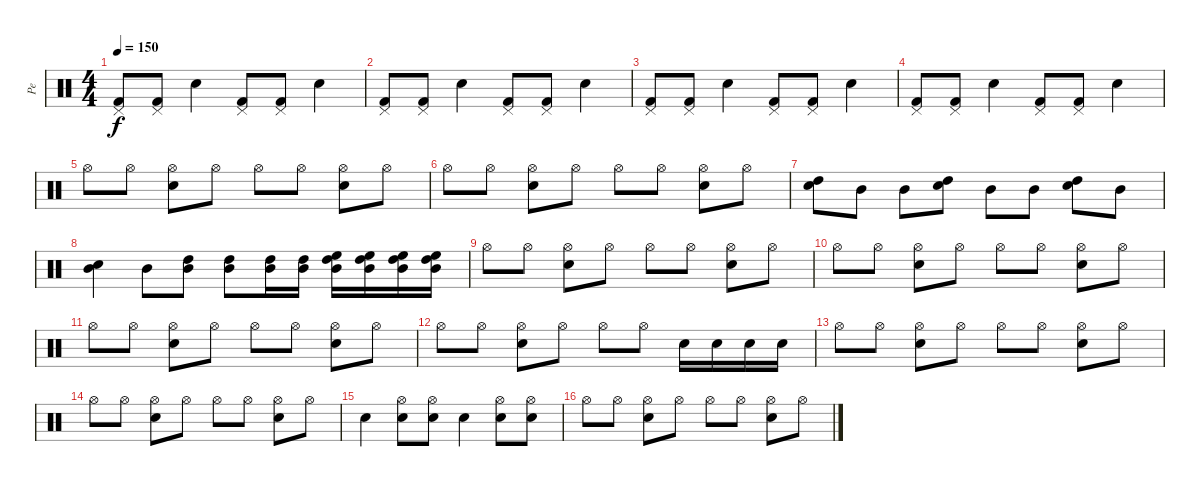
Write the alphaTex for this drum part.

\track ("Pe" "Pe") {instrument percussion}
\staff {score}
\articulation defaults
\ts (4 4)
\tempo 150
\clef neutral
\ks c
("Kick (hit) 2" "Pedal Hi-Hat (hit)").8{dy f} ("Kick (hit) 2" "Pedal Hi-Hat (hit)").8 "Electric Snare (hit)".4 ("Kick (hit) 2" "Pedal Hi-Hat (hit)").8 ("Kick (hit) 2" "Pedal Hi-Hat (hit)").8 "Electric Snare (hit)".4 |
("Kick (hit) 2" "Pedal Hi-Hat (hit)").8 ("Kick (hit) 2" "Pedal Hi-Hat (hit)").8 "Electric Snare (hit)".4 ("Kick (hit) 2" "Pedal Hi-Hat (hit)").8 ("Kick (hit) 2" "Pedal Hi-Hat (hit)").8 "Electric Snare (hit)".4 |
("Kick (hit) 2" "Pedal Hi-Hat (hit)").8 ("Kick (hit) 2" "Pedal Hi-Hat (hit)").8 "Electric Snare (hit)".4 ("Kick (hit) 2" "Pedal Hi-Hat (hit)").8 ("Kick (hit) 2" "Pedal Hi-Hat (hit)").8 "Electric Snare (hit)".4 |
("Kick (hit) 2" "Pedal Hi-Hat (hit)").8 ("Kick (hit) 2" "Pedal Hi-Hat (hit)").8 "Electric Snare (hit)".4 ("Kick (hit) 2" "Pedal Hi-Hat (hit)").8 ("Kick (hit) 2" "Pedal Hi-Hat (hit)").8 "Electric Snare (hit)".4 |
"Hi-Hat (open)".8 "Hi-Hat (open)".8 ("Electric Snare (hit)" "Hi-Hat (open)").8 "Hi-Hat (open)".8 "Hi-Hat (open)".8 "Hi-Hat (open)".8 ("Electric Snare (hit)" "Hi-Hat (open)").8 "Hi-Hat (open)".8 |
"Hi-Hat (open)".8 "Hi-Hat (open)".8 ("Electric Snare (hit)" "Hi-Hat (open)").8 "Hi-Hat (open)".8 "Hi-Hat (open)".8 "Hi-Hat (open)".8 ("Electric Snare (hit)" "Hi-Hat (open)").8 "Hi-Hat (open)".8 |
("High Tom (hit)" "Electric Snare (hit)").8 "Mid Tom (hit)".8 "Mid Tom (hit)".8 ("High Tom (hit)" "Electric Snare (hit)").8 "Mid Tom (hit)".8 "Mid Tom (hit)".8 ("High Tom (hit)" "Electric Snare (hit)").8 "Mid Tom (hit)".8 |
("Mid Tom (hit)" "Electric Snare (hit)").4 "Mid Tom (hit)".8 ("Mid Tom (hit)" "High Tom (hit)").8 ("Mid Tom (hit)" "High Tom (hit)").8 ("Mid Tom (hit)" "High Tom (hit)").16 ("Mid Tom (hit)" "High Tom (hit)").16 ("Mid Tom (hit)" "High Tom (hit)" "High Floor Tom (hit)").16 ("Mid Tom (hit)" "High Tom (hit)" "High Floor Tom (hit)").16 ("Mid Tom (hit)" "High Tom (hit)" "High Floor Tom (hit)").16 ("Mid Tom (hit)" "High Tom (hit)" "High Floor Tom (hit)").16 |
"Hi-Hat (open)".8 "Hi-Hat (open)".8 ("Electric Snare (hit)" "Hi-Hat (open)").8 "Hi-Hat (open)".8 "Hi-Hat (open)".8 "Hi-Hat (open)".8 ("Electric Snare (hit)" "Hi-Hat (open)").8 "Hi-Hat (open)".8 |
"Hi-Hat (open)".8 "Hi-Hat (open)".8 ("Electric Snare (hit)" "Hi-Hat (open)").8 "Hi-Hat (open)".8 "Hi-Hat (open)".8 "Hi-Hat (open)".8 ("Electric Snare (hit)" "Hi-Hat (open)").8 "Hi-Hat (open)".8 |
"Hi-Hat (open)".8 "Hi-Hat (open)".8 ("Electric Snare (hit)" "Hi-Hat (open)").8 "Hi-Hat (open)".8 "Hi-Hat (open)".8 "Hi-Hat (open)".8 ("Electric Snare (hit)" "Hi-Hat (open)").8 "Hi-Hat (open)".8 |
"Hi-Hat (open)".8 "Hi-Hat (open)".8 ("Electric Snare (hit)" "Hi-Hat (open)").8 "Hi-Hat (open)".8 "Hi-Hat (open)".8 "Hi-Hat (open)".8 "Electric Snare (hit)".16 "Electric Snare (hit)".16 "Electric Snare (hit)".16 "Electric Snare (hit)".16 |
"Hi-Hat (open)".8 "Hi-Hat (open)".8 ("Electric Snare (hit)" "Hi-Hat (open)").8 "Hi-Hat (open)".8 "Hi-Hat (open)".8 "Hi-Hat (open)".8 ("Electric Snare (hit)" "Hi-Hat (open)").8 "Hi-Hat (open)".8 |
"Hi-Hat (open)".8 "Hi-Hat (open)".8 ("Electric Snare (hit)" "Hi-Hat (open)").8 "Hi-Hat (open)".8 "Hi-Hat (open)".8 "Hi-Hat (open)".8 ("Electric Snare (hit)" "Hi-Hat (open)").8 "Hi-Hat (open)".8 |
"Electric Snare (hit)".4 ("Electric Snare (hit)" "Hi-Hat (open)").8 ("Electric Snare (hit)" "Hi-Hat (open)").8 "Electric Snare (hit)".4 ("Electric Snare (hit)" "Hi-Hat (open)").8 ("Electric Snare (hit)" "Hi-Hat (open)").8 |
"Hi-Hat (open)".8 "Hi-Hat (open)".8 ("Electric Snare (hit)" "Hi-Hat (open)").8 "Hi-Hat (open)".8 "Hi-Hat (open)".8 "Hi-Hat (open)".8 ("Electric Snare (hit)" "Hi-Hat (open)").8 "Hi-Hat (open)".8
